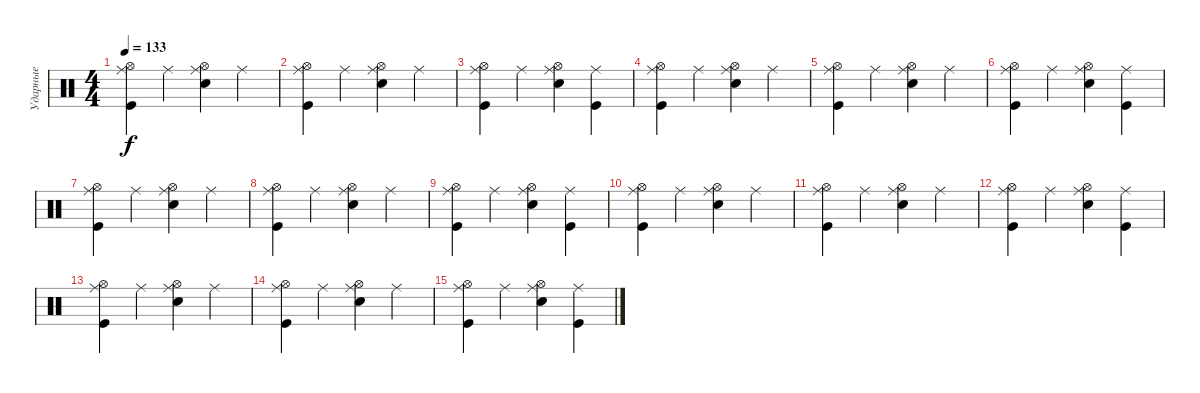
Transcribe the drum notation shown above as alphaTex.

\track ("Ударные" "Ударные") {instrument percussion}
\staff {score}
\articulation defaults
\ts (4 4)
\tempo 133
\clef neutral
\ks c
("Hi-Hat (open)" "Kick (hit)" "Ride (middle)").4{dy f} "Ride (middle)".4 ("Hi-Hat (open)" "Electric Snare (hit)" "Ride (middle)").4 "Ride (middle)".4 |
("Hi-Hat (open)" "Kick (hit)" "Ride (middle)").4 "Ride (middle)".4 ("Hi-Hat (open)" "Electric Snare (hit)" "Ride (middle)").4 "Ride (middle)".4 |
("Hi-Hat (open)" "Kick (hit)" "Ride (middle)").4 "Ride (middle)".4 ("Hi-Hat (open)" "Electric Snare (hit)" "Ride (middle)").4 ("Kick (hit)" "Ride (middle)").4 |
("Hi-Hat (open)" "Kick (hit)" "Ride (middle)").4 "Ride (middle)".4 ("Hi-Hat (open)" "Electric Snare (hit)" "Ride (middle)").4 "Ride (middle)".4 |
("Hi-Hat (open)" "Kick (hit)" "Ride (middle)").4 "Ride (middle)".4 ("Hi-Hat (open)" "Electric Snare (hit)" "Ride (middle)").4 "Ride (middle)".4 |
("Hi-Hat (open)" "Kick (hit)" "Ride (middle)").4 "Ride (middle)".4 ("Hi-Hat (open)" "Electric Snare (hit)" "Ride (middle)").4 ("Kick (hit)" "Ride (middle)").4 |
("Hi-Hat (open)" "Kick (hit)" "Ride (middle)").4 "Ride (middle)".4 ("Hi-Hat (open)" "Electric Snare (hit)" "Ride (middle)").4 "Ride (middle)".4 |
("Hi-Hat (open)" "Kick (hit)" "Ride (middle)").4 "Ride (middle)".4 ("Hi-Hat (open)" "Electric Snare (hit)" "Ride (middle)").4 "Ride (middle)".4 |
("Hi-Hat (open)" "Kick (hit)" "Ride (middle)").4 "Ride (middle)".4 ("Hi-Hat (open)" "Electric Snare (hit)" "Ride (middle)").4 ("Kick (hit)" "Ride (middle)").4 |
("Hi-Hat (open)" "Kick (hit)" "Ride (middle)").4 "Ride (middle)".4 ("Hi-Hat (open)" "Electric Snare (hit)" "Ride (middle)").4 "Ride (middle)".4 |
("Hi-Hat (open)" "Kick (hit)" "Ride (middle)").4 "Ride (middle)".4 ("Hi-Hat (open)" "Electric Snare (hit)" "Ride (middle)").4 "Ride (middle)".4 |
("Hi-Hat (open)" "Kick (hit)" "Ride (middle)").4 "Ride (middle)".4 ("Hi-Hat (open)" "Electric Snare (hit)" "Ride (middle)").4 ("Kick (hit)" "Ride (middle)").4 |
("Hi-Hat (open)" "Kick (hit)" "Ride (middle)").4 "Ride (middle)".4 ("Hi-Hat (open)" "Electric Snare (hit)" "Ride (middle)").4 "Ride (middle)".4 |
("Hi-Hat (open)" "Kick (hit)" "Ride (middle)").4 "Ride (middle)".4 ("Hi-Hat (open)" "Electric Snare (hit)" "Ride (middle)").4 "Ride (middle)".4 |
("Hi-Hat (open)" "Kick (hit)" "Ride (middle)").4 "Ride (middle)".4 ("Hi-Hat (open)" "Electric Snare (hit)" "Ride (middle)").4 ("Kick (hit)" "Ride (middle)").4
